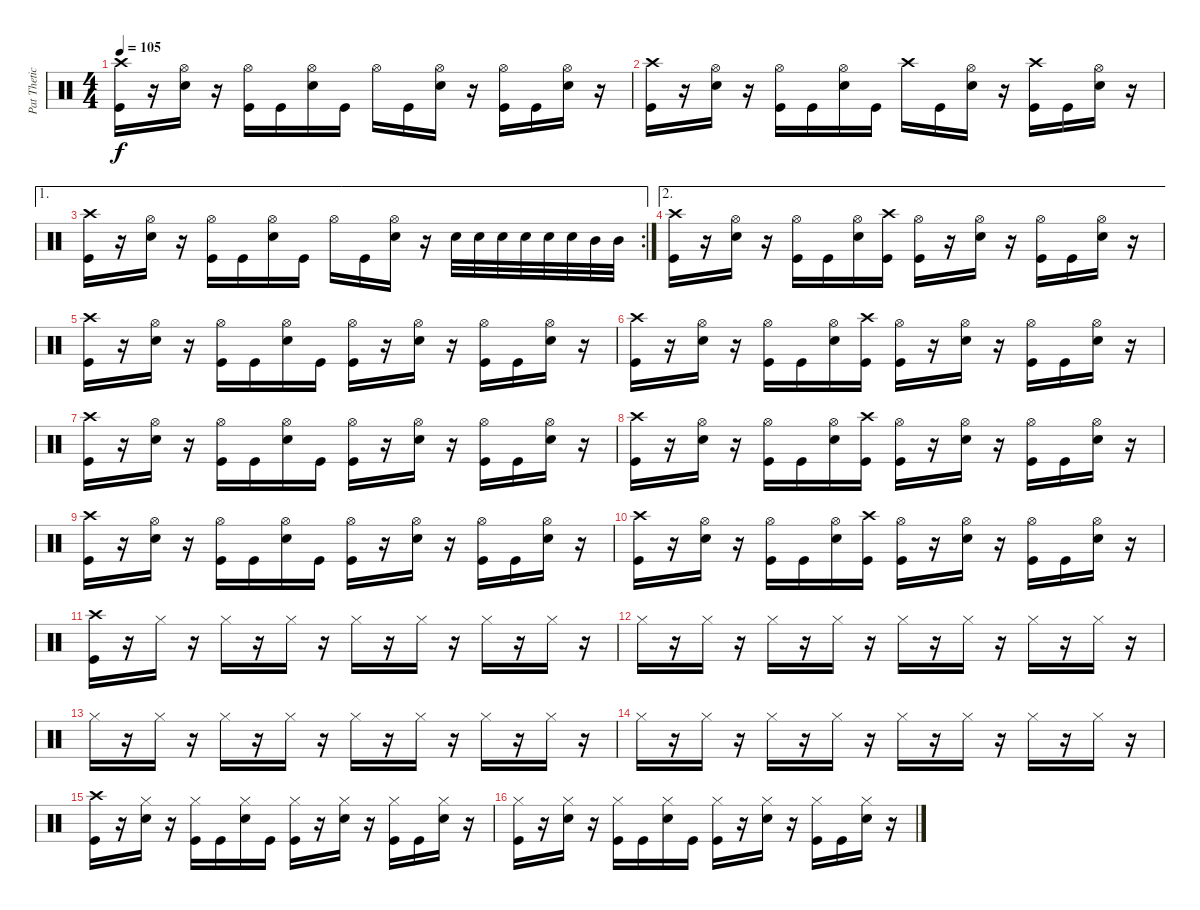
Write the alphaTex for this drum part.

\track ("Pat Thetic" "Pat Thetic") {instrument percussion}
\staff {score}
\articulation defaults
\ts (4 4)
\tempo 105
\clef neutral
\ks c
("Crash high (hit)" "Kick (hit)").16{dy f} r.16 ("Hi-Hat (open)" "Snare (hit) 2").16 r.16 ("Hi-Hat (open)" "Kick (hit)").16 "Kick (hit)".16 ("Hi-Hat (open)" "Snare (hit) 2").16 "Kick (hit)".16 "Hi-Hat (open)".16 "Kick (hit)".16 ("Hi-Hat (open)" "Snare (hit) 2").16 r.16 ("Hi-Hat (open)" "Kick (hit)").16 "Kick (hit)".16 ("Hi-Hat (open)" "Snare (hit) 2").16 r.16 |
("Crash high (hit)" "Kick (hit)").16 r.16 ("Hi-Hat (open)" "Snare (hit) 2").16 r.16 ("Hi-Hat (open)" "Kick (hit)").16 "Kick (hit)".16 ("Hi-Hat (open)" "Snare (hit) 2").16 "Kick (hit)".16 "Crash high (hit)".16 "Kick (hit)".16 ("Hi-Hat (open)" "Snare (hit) 2").16 r.16 ("Crash high (hit)" "Kick (hit)").16 "Kick (hit)".16 ("Hi-Hat (open)" "Snare (hit) 2").16 r.16 |
\ae 1
\rc 2
("Crash high (hit)" "Kick (hit)").16 r.16 ("Hi-Hat (open)" "Snare (hit) 2").16 r.16 ("Hi-Hat (open)" "Kick (hit)").16 "Kick (hit)".16 ("Hi-Hat (open)" "Snare (hit) 2").16 "Kick (hit)".16 "Hi-Hat (open)".16 "Kick (hit)".16 ("Hi-Hat (open)" "Snare (hit) 2").16 r.16 "Snare (hit) 2".32 "Snare (hit) 2".32 "Snare (hit) 2".32 "Electric Snare (hit)".32 "Electric Snare (hit)".32 "Electric Snare (hit)".32 "Mid Tom (hit)".32 "Mid Tom (hit)".32 |
\ae 2
("Crash high (hit)" "Kick (hit)").16 r.16 ("Hi-Hat (open)" "Snare (hit) 2").16 r.16 ("Hi-Hat (open)" "Kick (hit)").16 "Kick (hit)".16 ("Hi-Hat (open)" "Snare (hit) 2").16 ("Crash high (hit)" "Kick (hit)").16 ("Hi-Hat (open)" "Kick (hit)").16 r.16 ("Hi-Hat (open)" "Snare (hit) 2").16 r.16 ("Hi-Hat (open)" "Kick (hit)").16 "Kick (hit)".16 ("Hi-Hat (open)" "Snare (hit) 2").16 r.16 |
("Crash high (hit)" "Kick (hit)").16 r.16 ("Hi-Hat (open)" "Snare (hit) 2").16 r.16 ("Hi-Hat (open)" "Kick (hit)").16 "Kick (hit)".16 ("Hi-Hat (open)" "Snare (hit) 2").16 "Kick (hit)".16 ("Hi-Hat (open)" "Kick (hit)").16 r.16 ("Hi-Hat (open)" "Snare (hit) 2").16 r.16 ("Hi-Hat (open)" "Kick (hit)").16 "Kick (hit)".16 ("Hi-Hat (open)" "Snare (hit) 2").16 r.16 |
("Crash high (hit)" "Kick (hit)").16 r.16 ("Hi-Hat (open)" "Snare (hit) 2").16 r.16 ("Hi-Hat (open)" "Kick (hit)").16 "Kick (hit)".16 ("Hi-Hat (open)" "Snare (hit) 2").16 ("Crash high (hit)" "Kick (hit)").16 ("Hi-Hat (open)" "Kick (hit)").16 r.16 ("Hi-Hat (open)" "Snare (hit) 2").16 r.16 ("Hi-Hat (open)" "Kick (hit)").16 "Kick (hit)".16 ("Hi-Hat (open)" "Snare (hit) 2").16 r.16 |
("Crash high (hit)" "Kick (hit)").16 r.16 ("Hi-Hat (open)" "Snare (hit) 2").16 r.16 ("Hi-Hat (open)" "Kick (hit)").16 "Kick (hit)".16 ("Hi-Hat (open)" "Snare (hit) 2").16 "Kick (hit)".16 ("Hi-Hat (open)" "Kick (hit)").16 r.16 ("Hi-Hat (open)" "Snare (hit) 2").16 r.16 ("Hi-Hat (open)" "Kick (hit)").16 "Kick (hit)".16 ("Hi-Hat (open)" "Snare (hit) 2").16 r.16 |
("Crash high (hit)" "Kick (hit)").16 r.16 ("Hi-Hat (open)" "Snare (hit) 2").16 r.16 ("Hi-Hat (open)" "Kick (hit)").16 "Kick (hit)".16 ("Hi-Hat (open)" "Snare (hit) 2").16 ("Crash high (hit)" "Kick (hit)").16 ("Hi-Hat (open)" "Kick (hit)").16 r.16 ("Hi-Hat (open)" "Snare (hit) 2").16 r.16 ("Hi-Hat (open)" "Kick (hit)").16 "Kick (hit)".16 ("Hi-Hat (open)" "Snare (hit) 2").16 r.16 |
("Crash high (hit)" "Kick (hit)").16 r.16 ("Hi-Hat (open)" "Snare (hit) 2").16 r.16 ("Hi-Hat (open)" "Kick (hit)").16 "Kick (hit)".16 ("Hi-Hat (open)" "Snare (hit) 2").16 "Kick (hit)".16 ("Hi-Hat (open)" "Kick (hit)").16 r.16 ("Hi-Hat (open)" "Snare (hit) 2").16 r.16 ("Hi-Hat (open)" "Kick (hit)").16 "Kick (hit)".16 ("Hi-Hat (open)" "Snare (hit) 2").16 r.16 |
("Crash high (hit)" "Kick (hit)").16 r.16 ("Hi-Hat (open)" "Snare (hit) 2").16 r.16 ("Hi-Hat (open)" "Kick (hit)").16 "Kick (hit)".16 ("Hi-Hat (open)" "Snare (hit) 2").16 ("Crash high (hit)" "Kick (hit)").16 ("Hi-Hat (open)" "Kick (hit)").16 r.16 ("Hi-Hat (open)" "Snare (hit) 2").16 r.16 ("Hi-Hat (open)" "Kick (hit)").16 "Kick (hit)".16 ("Hi-Hat (open)" "Snare (hit) 2").16 r.16 |
("Crash high (hit)" "Kick (hit)").16 r.16 "Hi-Hat (closed)".16 r.16 "Hi-Hat (closed)".16 r.16 "Hi-Hat (closed)".16 r.16 "Hi-Hat (closed)".16 r.16 "Hi-Hat (closed)".16 r.16 "Hi-Hat (closed)".16 r.16 "Hi-Hat (closed)".16 r.16 |
"Hi-Hat (closed)".16 r.16 "Hi-Hat (closed)".16 r.16 "Hi-Hat (closed)".16 r.16 "Hi-Hat (closed)".16 r.16 "Hi-Hat (closed)".16 r.16 "Hi-Hat (closed)".16 r.16 "Hi-Hat (closed)".16 r.16 "Hi-Hat (closed)".16 r.16 |
"Hi-Hat (closed)".16 r.16 "Hi-Hat (closed)".16 r.16 "Hi-Hat (closed)".16 r.16 "Hi-Hat (closed)".16 r.16 "Hi-Hat (closed)".16 r.16 "Hi-Hat (closed)".16 r.16 "Hi-Hat (closed)".16 r.16 "Hi-Hat (closed)".16 r.16 |
"Hi-Hat (closed)".16 r.16 "Hi-Hat (closed)".16 r.16 "Hi-Hat (closed)".16 r.16 "Hi-Hat (closed)".16 r.16 "Hi-Hat (closed)".16 r.16 "Hi-Hat (closed)".16 r.16 "Hi-Hat (closed)".16 r.16 "Hi-Hat (closed)".16 r.16 |
("Crash high (hit)" "Kick (hit)").16 r.16 ("Hi-Hat (closed)" "Snare (hit) 2").16 r.16 ("Hi-Hat (closed)" "Kick (hit)").16 "Kick (hit)".16 ("Hi-Hat (closed)" "Snare (hit) 2").16 "Kick (hit)".16 ("Hi-Hat (closed)" "Kick (hit)").16 r.16 ("Hi-Hat (closed)" "Snare (hit) 2").16 r.16 ("Hi-Hat (closed)" "Kick (hit)").16 "Kick (hit)".16 ("Hi-Hat (closed)" "Snare (hit) 2").16 r.16 |
("Hi-Hat (closed)" "Kick (hit)").16 r.16 ("Hi-Hat (closed)" "Snare (hit) 2").16 r.16 ("Hi-Hat (closed)" "Kick (hit)").16 "Kick (hit)".16 ("Hi-Hat (closed)" "Snare (hit) 2").16 "Kick (hit)".16 ("Hi-Hat (closed)" "Kick (hit)").16 r.16 ("Hi-Hat (closed)" "Snare (hit) 2").16 r.16 ("Hi-Hat (closed)" "Kick (hit)").16 "Kick (hit)".16 ("Hi-Hat (closed)" "Snare (hit) 2").16 r.16
